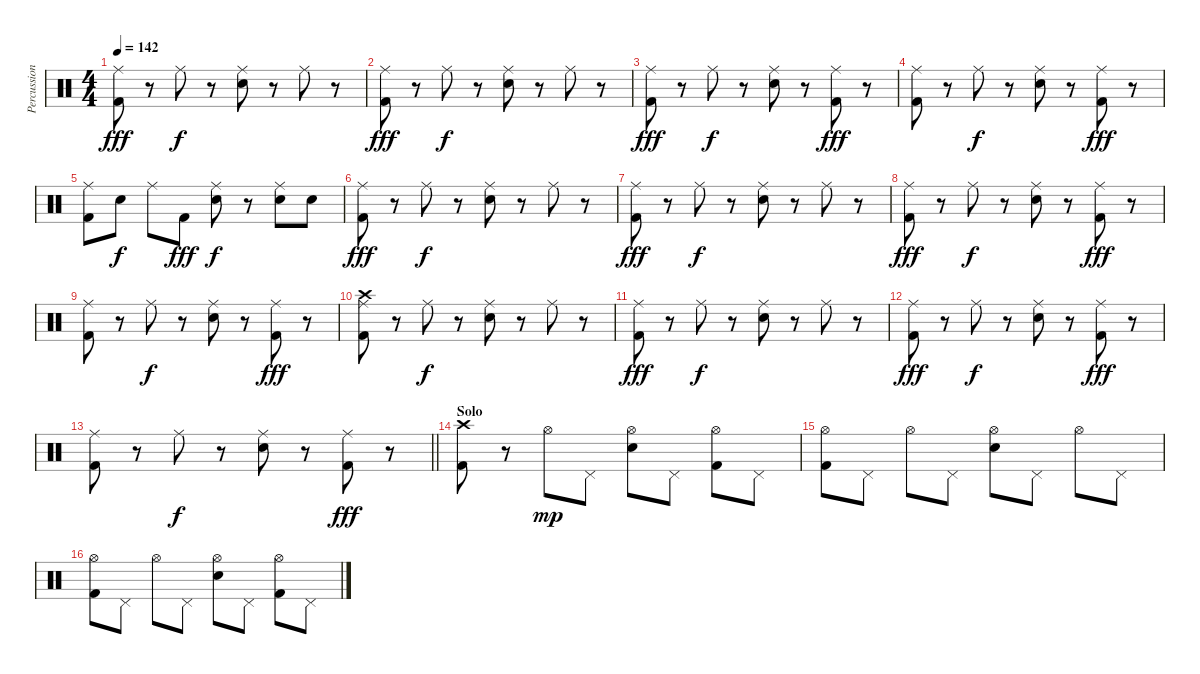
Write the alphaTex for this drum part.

\track ("Percussion" "Percussion") {instrument percussion}
\staff {score}
\articulation defaults
\ts (4 4)
\tempo 142
\clef neutral
\ks c
("Kick (hit) 2" "Ride (middle)").8{dy fff} r.8 "Ride (middle)".8{dy f} r.8 ("Electric Snare (hit)" "Ride (middle)").8 r.8 "Ride (middle)".8 r.8 |
("Kick (hit) 2" "Ride (middle)").8{dy fff} r.8 "Ride (middle)".8{dy f} r.8 ("Electric Snare (hit)" "Ride (middle)").8 r.8 "Ride (middle)".8 r.8 |
("Kick (hit) 2" "Ride (middle)").8{dy fff} r.8 "Ride (middle)".8{dy f} r.8 ("Electric Snare (hit)" "Ride (middle)").8 r.8 ("Kick (hit) 2" "Ride (middle)").8{dy fff} r.8 |
("Kick (hit) 2" "Ride (middle)").8 r.8 "Ride (middle)".8{dy f} r.8 ("Electric Snare (hit)" "Ride (middle)").8 r.8 ("Kick (hit) 2" "Ride (middle)").8{dy fff} r.8 |
("Kick (hit) 2" "Ride (middle)").8 "Electric Snare (hit)".8{dy f} "Ride (middle)".8 "Kick (hit) 2".8{dy fff} ("Electric Snare (hit)" "Ride (middle)").8{dy f} r.8 ("Electric Snare (hit)" "Ride (middle)").8 "Electric Snare (hit)".8 |
("Kick (hit) 2" "Ride (middle)").8{dy fff} r.8 "Ride (middle)".8{dy f} r.8 ("Electric Snare (hit)" "Ride (middle)").8 r.8 "Ride (middle)".8 r.8 |
("Kick (hit) 2" "Ride (middle)").8{dy fff} r.8 "Ride (middle)".8{dy f} r.8 ("Electric Snare (hit)" "Ride (middle)").8 r.8 "Ride (middle)".8 r.8 |
("Kick (hit) 2" "Ride (middle)").8{dy fff} r.8 "Ride (middle)".8{dy f} r.8 ("Electric Snare (hit)" "Ride (middle)").8 r.8 ("Kick (hit) 2" "Ride (middle)").8{dy fff} r.8 |
("Kick (hit) 2" "Ride (middle)").8 r.8 "Ride (middle)".8{dy f} r.8 ("Electric Snare (hit)" "Ride (middle)").8 r.8 ("Kick (hit) 2" "Ride (middle)").8{dy fff} r.8 |
("Kick (hit) 2" "Ride (middle)" "Crash high (hit)").8 r.8 "Ride (middle)".8{dy f} r.8 ("Electric Snare (hit)" "Ride (middle)").8 r.8 "Ride (middle)".8 r.8 |
("Kick (hit) 2" "Ride (middle)").8{dy fff} r.8 "Ride (middle)".8{dy f} r.8 ("Electric Snare (hit)" "Ride (middle)").8 r.8 "Ride (middle)".8 r.8 |
("Kick (hit) 2" "Ride (middle)").8{dy fff} r.8 "Ride (middle)".8{dy f} r.8 ("Electric Snare (hit)" "Ride (middle)").8 r.8 ("Kick (hit) 2" "Ride (middle)").8{dy fff} r.8 |
\barLineRight lightlight
("Kick (hit) 2" "Ride (middle)").8 r.8 "Ride (middle)".8{dy f} r.8 ("Electric Snare (hit)" "Ride (middle)").8 r.8 ("Kick (hit) 2" "Ride (middle)").8{dy fff} r.8 |
\section ("" "Solo")
("Kick (hit) 2" "Crash high (hit)").8 r.8 "Hi-Hat (open)".8{dy mp} "Pedal Hi-Hat (hit)".8 ("Electric Snare (hit)" "Hi-Hat (open)").8 "Pedal Hi-Hat (hit)".8 ("Kick (hit) 2" "Hi-Hat (open)").8 "Pedal Hi-Hat (hit)".8 |
("Kick (hit) 2" "Hi-Hat (open)").8 "Pedal Hi-Hat (hit)".8 "Hi-Hat (open)".8 "Pedal Hi-Hat (hit)".8 ("Electric Snare (hit)" "Hi-Hat (open)").8 "Pedal Hi-Hat (hit)".8 "Hi-Hat (open)".8 "Pedal Hi-Hat (hit)".8 |
("Kick (hit) 2" "Hi-Hat (open)").8 "Pedal Hi-Hat (hit)".8 "Hi-Hat (open)".8 "Pedal Hi-Hat (hit)".8 ("Electric Snare (hit)" "Hi-Hat (open)").8 "Pedal Hi-Hat (hit)".8 ("Kick (hit) 2" "Hi-Hat (open)").8 "Pedal Hi-Hat (hit)".8
